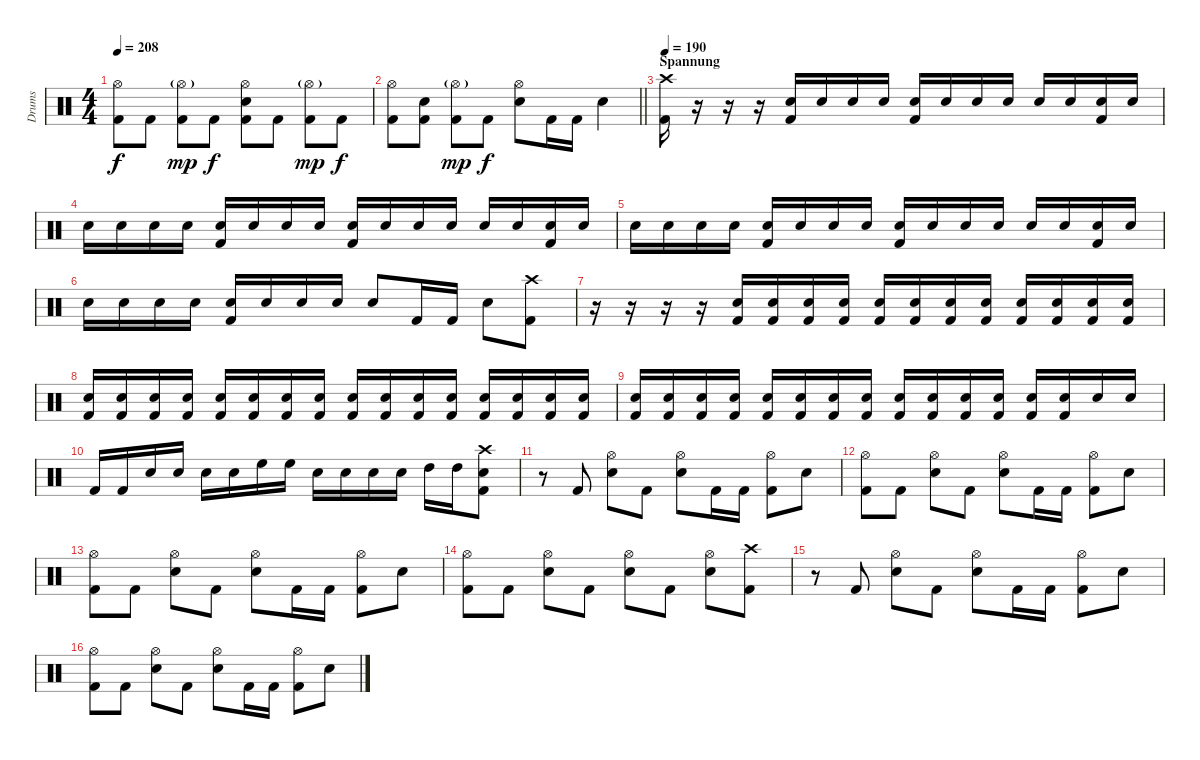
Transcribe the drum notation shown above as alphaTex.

\track ("Drums" "Drums") {instrument percussion}
\staff
\articulation defaults
\ts (4 4)
\tempo 208
\clef neutral
\ks c
("Hi-Hat (open)" "Kick (hit) 2").8{dy f} "Kick (hit) 2".8 ("Hi-Hat (open)"{g} "Kick (hit) 2").8{dy mp} "Kick (hit) 2".8{dy f} ("Hi-Hat (open)" "Electric Snare (hit)" "Kick (hit) 2").8 "Kick (hit) 2".8 ("Hi-Hat (open)"{g} "Kick (hit) 2").8{dy mp} "Kick (hit) 2".8{dy f} |
\barLineRight lightlight
("Hi-Hat (open)" "Kick (hit) 2").8 ("Electric Snare (hit)" "Kick (hit) 2").8 ("Hi-Hat (open)"{g} "Kick (hit) 2").8{dy mp} "Kick (hit) 2".8{dy f} ("Hi-Hat (open)" "Electric Snare (hit)").8 "Kick (hit) 2".16 "Kick (hit) 2".16 "Electric Snare (hit)".4 |
\section ("" "Spannung")
\tempo 190
("Crash high (hit)" "Kick (hit) 2").16 r.16 r.16 r.16 ("Electric Snare (hit)" "Kick (hit) 2").16 "Electric Snare (hit)".16 "Electric Snare (hit)".16 "Electric Snare (hit)".16 ("Electric Snare (hit)" "Kick (hit) 2").16 "Electric Snare (hit)".16 "Electric Snare (hit)".16 "Electric Snare (hit)".16 "Electric Snare (hit)".16 "Electric Snare (hit)".16 ("Electric Snare (hit)" "Kick (hit) 2").16 "Electric Snare (hit)".16 |
"Electric Snare (hit)".16 "Electric Snare (hit)".16 "Electric Snare (hit)".16 "Electric Snare (hit)".16 ("Electric Snare (hit)" "Kick (hit) 2").16 "Electric Snare (hit)".16 "Electric Snare (hit)".16 "Electric Snare (hit)".16 ("Electric Snare (hit)" "Kick (hit) 2").16 "Electric Snare (hit)".16 "Electric Snare (hit)".16 "Electric Snare (hit)".16 "Electric Snare (hit)".16 "Electric Snare (hit)".16 ("Electric Snare (hit)" "Kick (hit) 2").16 "Electric Snare (hit)".16 |
"Electric Snare (hit)".16 "Electric Snare (hit)".16 "Electric Snare (hit)".16 "Electric Snare (hit)".16 ("Electric Snare (hit)" "Kick (hit) 2").16 "Electric Snare (hit)".16 "Electric Snare (hit)".16 "Electric Snare (hit)".16 ("Electric Snare (hit)" "Kick (hit) 2").16 "Electric Snare (hit)".16 "Electric Snare (hit)".16 "Electric Snare (hit)".16 "Electric Snare (hit)".16 "Electric Snare (hit)".16 ("Electric Snare (hit)" "Kick (hit) 2").16 "Electric Snare (hit)".16 |
"Electric Snare (hit)".16 "Electric Snare (hit)".16 "Electric Snare (hit)".16 "Electric Snare (hit)".16 ("Electric Snare (hit)" "Kick (hit) 2").16 "Electric Snare (hit)".16 "Electric Snare (hit)".16 "Electric Snare (hit)".16 "Electric Snare (hit)".8 "Kick (hit) 2".16 "Kick (hit) 2".16 "Electric Snare (hit)".8 ("Crash high (hit)" "Kick (hit) 2").8 |
r.16 r.16 r.16 r.16 ("Electric Snare (hit)" "Kick (hit) 2").16 ("Electric Snare (hit)" "Kick (hit) 2").16 ("Electric Snare (hit)" "Kick (hit) 2").16 ("Electric Snare (hit)" "Kick (hit) 2").16 ("Electric Snare (hit)" "Kick (hit) 2").16 ("Electric Snare (hit)" "Kick (hit) 2").16 ("Electric Snare (hit)" "Kick (hit) 2").16 ("Electric Snare (hit)" "Kick (hit) 2").16 ("Electric Snare (hit)" "Kick (hit) 2").16 ("Electric Snare (hit)" "Kick (hit) 2").16 ("Electric Snare (hit)" "Kick (hit) 2").16 ("Electric Snare (hit)" "Kick (hit) 2").16 |
("Electric Snare (hit)" "Kick (hit) 2").16 ("Electric Snare (hit)" "Kick (hit) 2").16 ("Electric Snare (hit)" "Kick (hit) 2").16 ("Electric Snare (hit)" "Kick (hit) 2").16 ("Electric Snare (hit)" "Kick (hit) 2").16 ("Electric Snare (hit)" "Kick (hit) 2").16 ("Electric Snare (hit)" "Kick (hit) 2").16 ("Electric Snare (hit)" "Kick (hit) 2").16 ("Electric Snare (hit)" "Kick (hit) 2").16 ("Electric Snare (hit)" "Kick (hit) 2").16 ("Electric Snare (hit)" "Kick (hit) 2").16 ("Electric Snare (hit)" "Kick (hit) 2").16 ("Electric Snare (hit)" "Kick (hit) 2").16 ("Electric Snare (hit)" "Kick (hit) 2").16 ("Electric Snare (hit)" "Kick (hit) 2").16 ("Electric Snare (hit)" "Kick (hit) 2").16 |
("Electric Snare (hit)" "Kick (hit) 2").16 ("Electric Snare (hit)" "Kick (hit) 2").16 ("Electric Snare (hit)" "Kick (hit) 2").16 ("Electric Snare (hit)" "Kick (hit) 2").16 ("Electric Snare (hit)" "Kick (hit) 2").16 ("Electric Snare (hit)" "Kick (hit) 2").16 ("Electric Snare (hit)" "Kick (hit) 2").16 ("Electric Snare (hit)" "Kick (hit) 2").16 ("Electric Snare (hit)" "Kick (hit) 2").16 ("Electric Snare (hit)" "Kick (hit) 2").16 ("Electric Snare (hit)" "Kick (hit) 2").16 ("Electric Snare (hit)" "Kick (hit) 2").16 ("Electric Snare (hit)" "Kick (hit) 2").16 ("Electric Snare (hit)" "Kick (hit) 2").16 "Electric Snare (hit)".16 "Electric Snare (hit)".16 |
"Kick (hit) 2".16 "Kick (hit) 2".16 "Electric Snare (hit)".16 "Electric Snare (hit)".16 "Electric Snare (hit)".16 "Electric Snare (hit)".16 "High Floor Tom (hit)".16 "High Floor Tom (hit)".16 "Electric Snare (hit)".16 "Electric Snare (hit)".16 "Electric Snare (hit)".16 "Electric Snare (hit)".16 "High Tom (hit)".16 "High Tom (hit)".16 ("Crash high (hit)" "Electric Snare (hit)" "Kick (hit) 2").8 |
r.8 "Kick (hit) 2".8 ("Hi-Hat (open)" "Electric Snare (hit)").8 "Kick (hit) 2".8 ("Hi-Hat (open)" "Electric Snare (hit)").8 "Kick (hit) 2".16 "Kick (hit) 2".16 ("Hi-Hat (open)" "Kick (hit) 2").8 "Electric Snare (hit)".8 |
("Hi-Hat (open)" "Kick (hit) 2").8 "Kick (hit) 2".8 ("Hi-Hat (open)" "Electric Snare (hit)").8 "Kick (hit) 2".8 ("Hi-Hat (open)" "Electric Snare (hit)").8 "Kick (hit) 2".16 "Kick (hit) 2".16 ("Hi-Hat (open)" "Kick (hit) 2").8 "Electric Snare (hit)".8 |
("Hi-Hat (open)" "Kick (hit) 2").8 "Kick (hit) 2".8 ("Hi-Hat (open)" "Electric Snare (hit)").8 "Kick (hit) 2".8 ("Hi-Hat (open)" "Electric Snare (hit)").8 "Kick (hit) 2".16 "Kick (hit) 2".16 ("Hi-Hat (open)" "Kick (hit) 2").8 "Electric Snare (hit)".8 |
("Hi-Hat (open)" "Kick (hit) 2").8 "Kick (hit) 2".8 ("Hi-Hat (open)" "Electric Snare (hit)").8 "Kick (hit) 2".8 ("Hi-Hat (open)" "Electric Snare (hit)").8 "Kick (hit) 2".8 ("Hi-Hat (open)" "Electric Snare (hit)").8 ("Crash high (hit)" "Kick (hit) 2").8 |
r.8 "Kick (hit) 2".8 ("Hi-Hat (open)" "Electric Snare (hit)").8 "Kick (hit) 2".8 ("Hi-Hat (open)" "Electric Snare (hit)").8 "Kick (hit) 2".16 "Kick (hit) 2".16 ("Hi-Hat (open)" "Kick (hit) 2").8 "Electric Snare (hit)".8 |
("Hi-Hat (open)" "Kick (hit) 2").8 "Kick (hit) 2".8 ("Hi-Hat (open)" "Electric Snare (hit)").8 "Kick (hit) 2".8 ("Hi-Hat (open)" "Electric Snare (hit)").8 "Kick (hit) 2".16 "Kick (hit) 2".16 ("Hi-Hat (open)" "Kick (hit) 2").8 "Electric Snare (hit)".8
